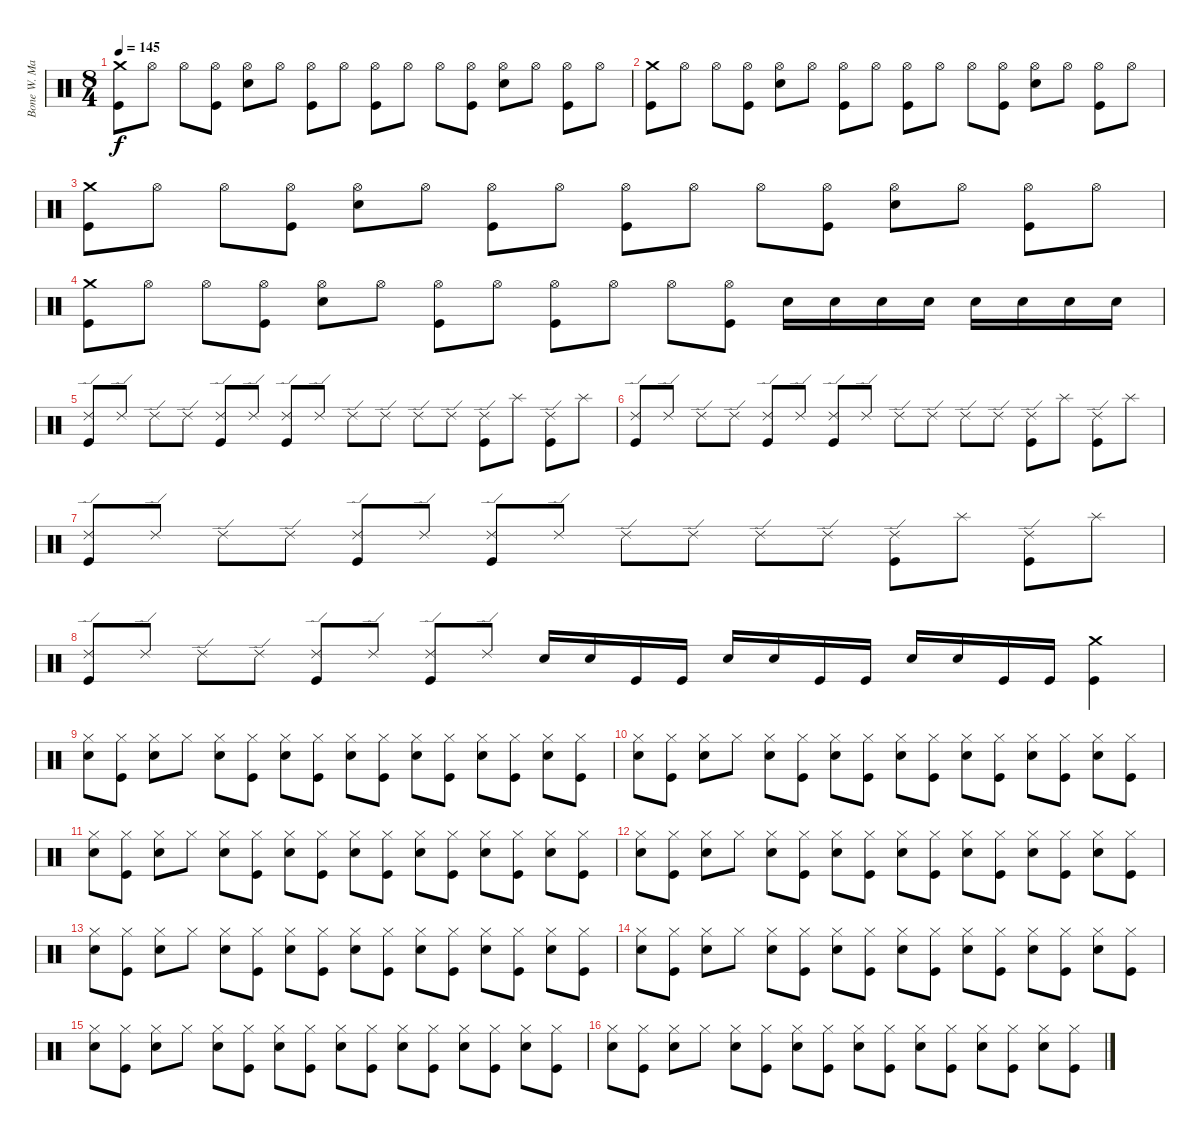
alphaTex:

\track ("Bone W. Machine" "Bone W. Ma") {instrument percussion}
\staff {score}
\articulation defaults
\ts (8 4)
\tempo 145
\clef neutral
\ks c
("Kick (hit)" "Crash medium (hit)").8{dy f} "Hi-Hat (open)".8 "Hi-Hat (open)".8 ("Kick (hit)" "Hi-Hat (open)").8 ("Hi-Hat (open)" "Electric Snare (hit)").8 "Hi-Hat (open)".8 ("Kick (hit)" "Hi-Hat (open)").8 "Hi-Hat (open)".8 ("Kick (hit)" "Hi-Hat (open)").8 "Hi-Hat (open)".8 "Hi-Hat (open)".8 ("Kick (hit)" "Hi-Hat (open)").8 ("Hi-Hat (open)" "Electric Snare (hit)").8 "Hi-Hat (open)".8 ("Kick (hit)" "Hi-Hat (open)").8 "Hi-Hat (open)".8 |
("Kick (hit)" "Crash medium (hit)").8 "Hi-Hat (open)".8 "Hi-Hat (open)".8 ("Kick (hit)" "Hi-Hat (open)").8 ("Hi-Hat (open)" "Electric Snare (hit)").8 "Hi-Hat (open)".8 ("Kick (hit)" "Hi-Hat (open)").8 "Hi-Hat (open)".8 ("Kick (hit)" "Hi-Hat (open)").8 "Hi-Hat (open)".8 "Hi-Hat (open)".8 ("Kick (hit)" "Hi-Hat (open)").8 ("Hi-Hat (open)" "Electric Snare (hit)").8 "Hi-Hat (open)".8 ("Kick (hit)" "Hi-Hat (open)").8 "Hi-Hat (open)".8 |
("Kick (hit)" "Crash medium (hit)").8 "Hi-Hat (open)".8 "Hi-Hat (open)".8 ("Kick (hit)" "Hi-Hat (open)").8 ("Hi-Hat (open)" "Electric Snare (hit)").8 "Hi-Hat (open)".8 ("Kick (hit)" "Hi-Hat (open)").8 "Hi-Hat (open)".8 ("Kick (hit)" "Hi-Hat (open)").8 "Hi-Hat (open)".8 "Hi-Hat (open)".8 ("Kick (hit)" "Hi-Hat (open)").8 ("Hi-Hat (open)" "Electric Snare (hit)").8 "Hi-Hat (open)".8 ("Kick (hit)" "Hi-Hat (open)").8 "Hi-Hat (open)".8 |
("Kick (hit)" "Crash medium (hit)").8 "Hi-Hat (open)".8 "Hi-Hat (open)".8 ("Kick (hit)" "Hi-Hat (open)").8 ("Hi-Hat (open)" "Electric Snare (hit)").8 "Hi-Hat (open)".8 ("Kick (hit)" "Hi-Hat (open)").8 "Hi-Hat (open)".8 ("Kick (hit)" "Hi-Hat (open)").8 "Hi-Hat (open)".8 "Hi-Hat (open)".8 ("Kick (hit)" "Hi-Hat (open)").8 "Electric Snare (hit)".16 "Electric Snare (hit)".16 "Electric Snare (hit)".16 "Electric Snare (hit)".16 "Electric Snare (hit)".16 "Electric Snare (hit)".16 "Electric Snare (hit)".16 "Electric Snare (hit)".16 |
("Kick (hit)" "Ride (edge) 2").8 "Ride (edge) 2".8 "Ride (edge) 2".8 "Ride (edge) 2".8 ("Kick (hit)" "Ride (edge) 2").8 "Ride (edge) 2".8 ("Kick (hit)" "Ride (edge) 2").8 "Ride (edge) 2".8 "Ride (edge) 2".8 "Ride (edge) 2".8 "Ride (edge) 2".8 "Ride (edge) 2".8 ("Kick (hit)" "Ride (edge) 2").8 "Splash (hit)".8 ("Kick (hit)" "Ride (edge) 2").8 "Splash (hit)".8 |
("Kick (hit)" "Ride (edge) 2").8 "Ride (edge) 2".8 "Ride (edge) 2".8 "Ride (edge) 2".8 ("Kick (hit)" "Ride (edge) 2").8 "Ride (edge) 2".8 ("Kick (hit)" "Ride (edge) 2").8 "Ride (edge) 2".8 "Ride (edge) 2".8 "Ride (edge) 2".8 "Ride (edge) 2".8 "Ride (edge) 2".8 ("Kick (hit)" "Ride (edge) 2").8 "Splash (hit)".8 ("Kick (hit)" "Ride (edge) 2").8 "Splash (hit)".8 |
("Kick (hit)" "Ride (edge) 2").8 "Ride (edge) 2".8 "Ride (edge) 2".8 "Ride (edge) 2".8 ("Kick (hit)" "Ride (edge) 2").8 "Ride (edge) 2".8 ("Kick (hit)" "Ride (edge) 2").8 "Ride (edge) 2".8 "Ride (edge) 2".8 "Ride (edge) 2".8 "Ride (edge) 2".8 "Ride (edge) 2".8 ("Kick (hit)" "Ride (edge) 2").8 "Splash (hit)".8 ("Kick (hit)" "Ride (edge) 2").8 "Splash (hit)".8 |
("Kick (hit)" "Ride (edge) 2").8 "Ride (edge) 2".8 "Ride (edge) 2".8 "Ride (edge) 2".8 ("Kick (hit)" "Ride (edge) 2").8 "Ride (edge) 2".8 ("Kick (hit)" "Ride (edge) 2").8 "Ride (edge) 2".8 "Electric Snare (hit)".16 "Electric Snare (hit)".16 "Kick (hit)".16 "Kick (hit)".16 "Electric Snare (hit)".16 "Electric Snare (hit)".16 "Kick (hit)".16 "Kick (hit)".16 "Electric Snare (hit)".16 "Electric Snare (hit)".16 "Kick (hit)".16 "Kick (hit)".16 ("Kick (hit)" "Crash medium (hit)").4 |
("Hi-Hat (closed)" "Electric Snare (hit)").8 ("Kick (hit)" "Hi-Hat (closed)").8 ("Hi-Hat (closed)" "Electric Snare (hit)").8 "Hi-Hat (closed)".8 ("Hi-Hat (closed)" "Electric Snare (hit)").8 ("Kick (hit)" "Hi-Hat (closed)").8 ("Hi-Hat (closed)" "Electric Snare (hit)").8 ("Kick (hit)" "Hi-Hat (closed)").8 ("Hi-Hat (closed)" "Electric Snare (hit)").8 ("Kick (hit)" "Hi-Hat (closed)").8 ("Hi-Hat (closed)" "Electric Snare (hit)").8 ("Kick (hit)" "Hi-Hat (closed)").8 ("Hi-Hat (closed)" "Electric Snare (hit)").8 ("Kick (hit)" "Hi-Hat (closed)").8 ("Hi-Hat (closed)" "Electric Snare (hit)").8 ("Kick (hit)" "Hi-Hat (closed)").8 |
("Hi-Hat (closed)" "Electric Snare (hit)").8 ("Kick (hit)" "Hi-Hat (closed)").8 ("Hi-Hat (closed)" "Electric Snare (hit)").8 "Hi-Hat (closed)".8 ("Hi-Hat (closed)" "Electric Snare (hit)").8 ("Kick (hit)" "Hi-Hat (closed)").8 ("Hi-Hat (closed)" "Electric Snare (hit)").8 ("Kick (hit)" "Hi-Hat (closed)").8 ("Hi-Hat (closed)" "Electric Snare (hit)").8 ("Kick (hit)" "Hi-Hat (closed)").8 ("Hi-Hat (closed)" "Electric Snare (hit)").8 ("Kick (hit)" "Hi-Hat (closed)").8 ("Hi-Hat (closed)" "Electric Snare (hit)").8 ("Kick (hit)" "Hi-Hat (closed)").8 ("Hi-Hat (closed)" "Electric Snare (hit)").8 ("Kick (hit)" "Hi-Hat (closed)").8 |
("Hi-Hat (closed)" "Electric Snare (hit)").8 ("Kick (hit)" "Hi-Hat (closed)").8 ("Hi-Hat (closed)" "Electric Snare (hit)").8 "Hi-Hat (closed)".8 ("Hi-Hat (closed)" "Electric Snare (hit)").8 ("Kick (hit)" "Hi-Hat (closed)").8 ("Hi-Hat (closed)" "Electric Snare (hit)").8 ("Kick (hit)" "Hi-Hat (closed)").8 ("Hi-Hat (closed)" "Electric Snare (hit)").8 ("Kick (hit)" "Hi-Hat (closed)").8 ("Hi-Hat (closed)" "Electric Snare (hit)").8 ("Kick (hit)" "Hi-Hat (closed)").8 ("Hi-Hat (closed)" "Electric Snare (hit)").8 ("Kick (hit)" "Hi-Hat (closed)").8 ("Hi-Hat (closed)" "Electric Snare (hit)").8 ("Kick (hit)" "Hi-Hat (closed)").8 |
("Hi-Hat (closed)" "Electric Snare (hit)").8 ("Kick (hit)" "Hi-Hat (closed)").8 ("Hi-Hat (closed)" "Electric Snare (hit)").8 "Hi-Hat (closed)".8 ("Hi-Hat (closed)" "Electric Snare (hit)").8 ("Kick (hit)" "Hi-Hat (closed)").8 ("Hi-Hat (closed)" "Electric Snare (hit)").8 ("Kick (hit)" "Hi-Hat (closed)").8 ("Hi-Hat (closed)" "Electric Snare (hit)").8 ("Kick (hit)" "Hi-Hat (closed)").8 ("Hi-Hat (closed)" "Electric Snare (hit)").8 ("Kick (hit)" "Hi-Hat (closed)").8 ("Hi-Hat (closed)" "Electric Snare (hit)").8 ("Kick (hit)" "Hi-Hat (closed)").8 ("Hi-Hat (closed)" "Electric Snare (hit)").8 ("Kick (hit)" "Hi-Hat (closed)").8 |
("Hi-Hat (closed)" "Electric Snare (hit)").8 ("Kick (hit)" "Hi-Hat (closed)").8 ("Hi-Hat (closed)" "Electric Snare (hit)").8 "Hi-Hat (closed)".8 ("Hi-Hat (closed)" "Electric Snare (hit)").8 ("Kick (hit)" "Hi-Hat (closed)").8 ("Hi-Hat (closed)" "Electric Snare (hit)").8 ("Kick (hit)" "Hi-Hat (closed)").8 ("Hi-Hat (closed)" "Electric Snare (hit)").8 ("Kick (hit)" "Hi-Hat (closed)").8 ("Hi-Hat (closed)" "Electric Snare (hit)").8 ("Kick (hit)" "Hi-Hat (closed)").8 ("Hi-Hat (closed)" "Electric Snare (hit)").8 ("Kick (hit)" "Hi-Hat (closed)").8 ("Hi-Hat (closed)" "Electric Snare (hit)").8 ("Kick (hit)" "Hi-Hat (closed)").8 |
("Hi-Hat (closed)" "Electric Snare (hit)").8 ("Kick (hit)" "Hi-Hat (closed)").8 ("Hi-Hat (closed)" "Electric Snare (hit)").8 "Hi-Hat (closed)".8 ("Hi-Hat (closed)" "Electric Snare (hit)").8 ("Kick (hit)" "Hi-Hat (closed)").8 ("Hi-Hat (closed)" "Electric Snare (hit)").8 ("Kick (hit)" "Hi-Hat (closed)").8 ("Hi-Hat (closed)" "Electric Snare (hit)").8 ("Kick (hit)" "Hi-Hat (closed)").8 ("Hi-Hat (closed)" "Electric Snare (hit)").8 ("Kick (hit)" "Hi-Hat (closed)").8 ("Hi-Hat (closed)" "Electric Snare (hit)").8 ("Kick (hit)" "Hi-Hat (closed)").8 ("Hi-Hat (closed)" "Electric Snare (hit)").8 ("Kick (hit)" "Hi-Hat (closed)").8 |
("Hi-Hat (closed)" "Electric Snare (hit)").8 ("Kick (hit)" "Hi-Hat (closed)").8 ("Hi-Hat (closed)" "Electric Snare (hit)").8 "Hi-Hat (closed)".8 ("Hi-Hat (closed)" "Electric Snare (hit)").8 ("Kick (hit)" "Hi-Hat (closed)").8 ("Hi-Hat (closed)" "Electric Snare (hit)").8 ("Kick (hit)" "Hi-Hat (closed)").8 ("Hi-Hat (closed)" "Electric Snare (hit)").8 ("Kick (hit)" "Hi-Hat (closed)").8 ("Hi-Hat (closed)" "Electric Snare (hit)").8 ("Kick (hit)" "Hi-Hat (closed)").8 ("Hi-Hat (closed)" "Electric Snare (hit)").8 ("Kick (hit)" "Hi-Hat (closed)").8 ("Hi-Hat (closed)" "Electric Snare (hit)").8 ("Kick (hit)" "Hi-Hat (closed)").8 |
("Hi-Hat (closed)" "Electric Snare (hit)").8 ("Kick (hit)" "Hi-Hat (closed)").8 ("Hi-Hat (closed)" "Electric Snare (hit)").8 "Hi-Hat (closed)".8 ("Hi-Hat (closed)" "Electric Snare (hit)").8 ("Kick (hit)" "Hi-Hat (closed)").8 ("Hi-Hat (closed)" "Electric Snare (hit)").8 ("Kick (hit)" "Hi-Hat (closed)").8 ("Hi-Hat (closed)" "Electric Snare (hit)").8 ("Kick (hit)" "Hi-Hat (closed)").8 ("Hi-Hat (closed)" "Electric Snare (hit)").8 ("Kick (hit)" "Hi-Hat (closed)").8 ("Hi-Hat (closed)" "Electric Snare (hit)").8 ("Kick (hit)" "Hi-Hat (closed)").8 ("Hi-Hat (closed)" "Electric Snare (hit)").8 ("Kick (hit)" "Hi-Hat (closed)").8
